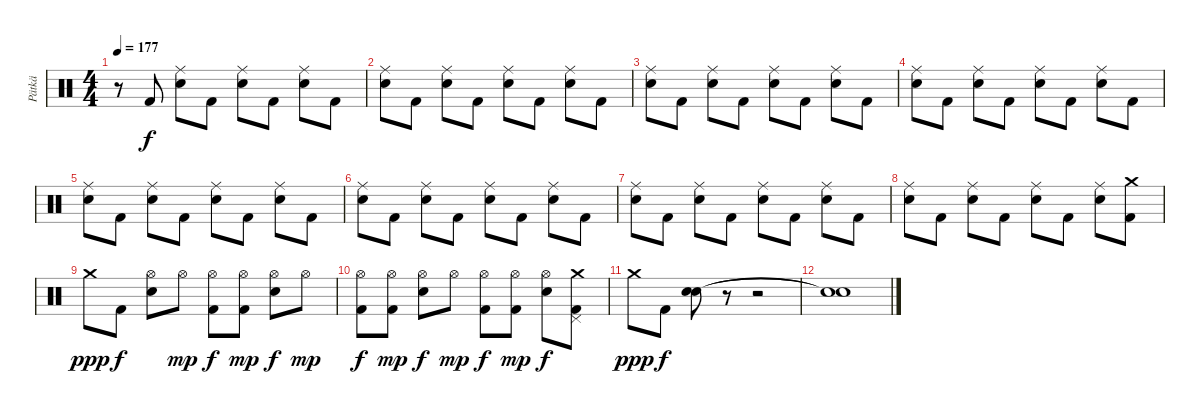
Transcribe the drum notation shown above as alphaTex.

\track ("Pätkä" "Pätkä") {instrument percussion}
\staff {score}
\articulation defaults
\ts (4 4)
\tempo 177
\clef neutral
\ks c
r.8{dy f} "Kick (hit) 2".8 ("Ride (middle)" "Electric Snare (hit)").8 "Kick (hit) 2".8 ("Ride (middle)" "Electric Snare (hit)").8 "Kick (hit) 2".8 ("Ride (middle)" "Electric Snare (hit)").8 "Kick (hit) 2".8 |
("Ride (middle)" "Electric Snare (hit)").8 "Kick (hit) 2".8 ("Ride (middle)" "Electric Snare (hit)").8 "Kick (hit) 2".8 ("Ride (middle)" "Electric Snare (hit)").8 "Kick (hit) 2".8 ("Ride (middle)" "Electric Snare (hit)").8 "Kick (hit) 2".8 |
("Ride (middle)" "Electric Snare (hit)").8 "Kick (hit) 2".8 ("Ride (middle)" "Electric Snare (hit)").8 "Kick (hit) 2".8 ("Ride (middle)" "Electric Snare (hit)").8 "Kick (hit) 2".8 ("Ride (middle)" "Electric Snare (hit)").8 "Kick (hit) 2".8 |
("Ride (middle)" "Electric Snare (hit)").8 "Kick (hit) 2".8 ("Ride (middle)" "Electric Snare (hit)").8 "Kick (hit) 2".8 ("Ride (middle)" "Electric Snare (hit)").8 "Kick (hit) 2".8 ("Ride (middle)" "Electric Snare (hit)").8 "Kick (hit) 2".8 |
("Ride (middle)" "Electric Snare (hit)").8 "Kick (hit) 2".8 ("Ride (middle)" "Electric Snare (hit)").8 "Kick (hit) 2".8 ("Ride (middle)" "Electric Snare (hit)").8 "Kick (hit) 2".8 ("Ride (middle)" "Electric Snare (hit)").8 "Kick (hit) 2".8 |
("Ride (middle)" "Electric Snare (hit)").8 "Kick (hit) 2".8 ("Ride (middle)" "Electric Snare (hit)").8 "Kick (hit) 2".8 ("Ride (middle)" "Electric Snare (hit)").8 "Kick (hit) 2".8 ("Ride (middle)" "Electric Snare (hit)").8 "Kick (hit) 2".8 |
("Ride (middle)" "Electric Snare (hit)").8 "Kick (hit) 2".8 ("Ride (middle)" "Electric Snare (hit)").8 "Kick (hit) 2".8 ("Ride (middle)" "Electric Snare (hit)").8 "Kick (hit) 2".8 ("Ride (middle)" "Electric Snare (hit)").8 "Kick (hit) 2".8 |
("Ride (middle)" "Electric Snare (hit)").8 "Kick (hit) 2".8 ("Ride (middle)" "Electric Snare (hit)").8 "Kick (hit) 2".8 ("Ride (middle)" "Electric Snare (hit)").8 "Kick (hit) 2".8 ("Ride (middle)" "Electric Snare (hit)").8 ("Crash medium (hit)" "Kick (hit) 2").8 |
"Crash medium (hit)".8{dy ppp} "Kick (hit) 2".8{dy f} ("Hi-Hat (open)" "Electric Snare (hit)").8 "Hi-Hat (open)".8{dy mp} ("Hi-Hat (open)" "Kick (hit) 2").8{dy f} ("Hi-Hat (open)" "Kick (hit) 2").8{dy mp} ("Hi-Hat (open)" "Electric Snare (hit)").8{dy f} "Hi-Hat (open)".8{dy mp} |
("Hi-Hat (open)" "Kick (hit) 2").8{dy f} ("Hi-Hat (open)" "Kick (hit) 2").8{dy mp} ("Hi-Hat (open)" "Electric Snare (hit)").8{dy f} "Hi-Hat (open)".8{dy mp} ("Hi-Hat (open)" "Kick (hit) 2").8{dy f} ("Hi-Hat (open)" "Kick (hit) 2").8{dy mp} ("Hi-Hat (open)" "Electric Snare (hit)").8{dy f} ("Crash medium (hit)" "Pedal Hi-Hat (hit)" "Kick (hit) 2").8 |
"Crash medium (hit)".8{dy ppp} "Kick (hit) 2".8{dy f} ("Electric Snare (hit)" "Electric Snare (hit)").8 r.8 r.2 |
("Snare (hit)"{t} "Snare (hit)"{t}).1
